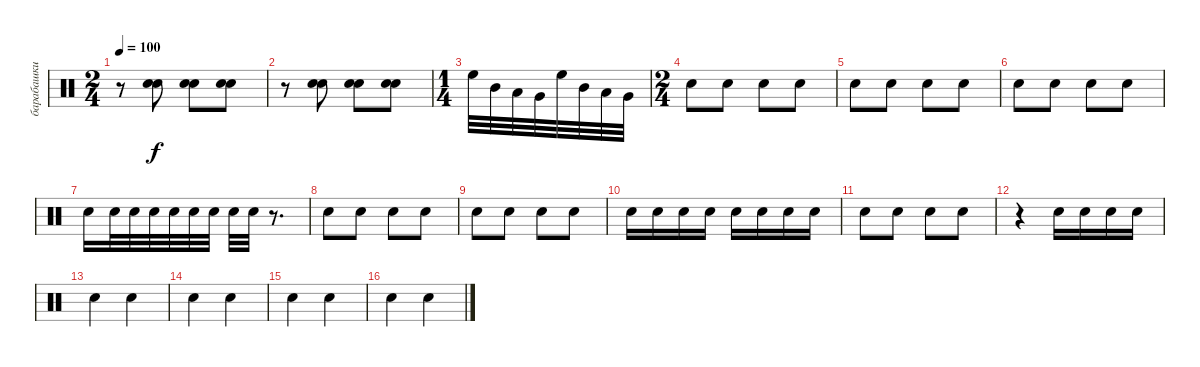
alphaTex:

\track ("барабашки middle" "барабашки ") {instrument percussion}
\staff {score}
\articulation defaults
\ts (2 4)
\tempo 100
\clef neutral
\ks c
r.8{dy f} ("Electric Snare (hit)" "Electric Snare (hit)").8 ("Electric Snare (hit)" "Snare (hit) 2").8 ("Electric Snare (hit)" "Electric Snare (hit)").8 |
r.8 ("Electric Snare (hit)" "Electric Snare (hit)").8 ("Electric Snare (hit)" "Snare (hit) 2").8 ("Electric Snare (hit)" "Electric Snare (hit)").8 |
\ts (1 4)
"High Floor Tom (hit)".32 "Mid Tom (hit)".32 "Low Tom (hit)".32 "Very Low Tom (hit)".32 "High Floor Tom (hit)".32 "Mid Tom (hit)".32 "Low Tom (hit)".32 "Very Low Tom (hit)".32 |
\ts (2 4)
"Electric Snare (hit)".8 "Electric Snare (hit)".8 "Electric Snare (hit)".8 "Electric Snare (hit)".8 |
"Electric Snare (hit)".8 "Electric Snare (hit)".8 "Electric Snare (hit)".8 "Electric Snare (hit)".8 |
"Electric Snare (hit)".8 "Electric Snare (hit)".8 "Electric Snare (hit)".8 "Electric Snare (hit)".8 |
"Electric Snare (hit)".16 "Electric Snare (hit)".32 "Electric Snare (hit)".32 "Electric Snare (hit)".32 "Electric Snare (hit)".32 "Electric Snare (hit)".32 "Electric Snare (hit)".32 "Electric Snare (hit)".32 "Electric Snare (hit)".32 r.8{d} |
"Electric Snare (hit)".8 "Electric Snare (hit)".8 "Electric Snare (hit)".8 "Electric Snare (hit)".8 |
"Electric Snare (hit)".8 "Electric Snare (hit)".8 "Electric Snare (hit)".8 "Electric Snare (hit)".8 |
"Electric Snare (hit)".16 "Electric Snare (hit)".16 "Electric Snare (hit)".16 "Electric Snare (hit)".16 "Electric Snare (hit)".16 "Electric Snare (hit)".16 "Electric Snare (hit)".16 "Electric Snare (hit)".16 |
"Electric Snare (hit)".8 "Electric Snare (hit)".8 "Electric Snare (hit)".8 "Electric Snare (hit)".8 |
r.4 "Electric Snare (hit)".16 "Electric Snare (hit)".16 "Electric Snare (hit)".16 "Electric Snare (hit)".16 |
"Electric Snare (hit)".4 "Snare (hit) 2".4 |
"Electric Snare (hit)".4 "Snare (hit) 2".4 |
"Electric Snare (hit)".4 "Snare (hit) 2".4 |
"Electric Snare (hit)".4 "Snare (hit) 2".4
